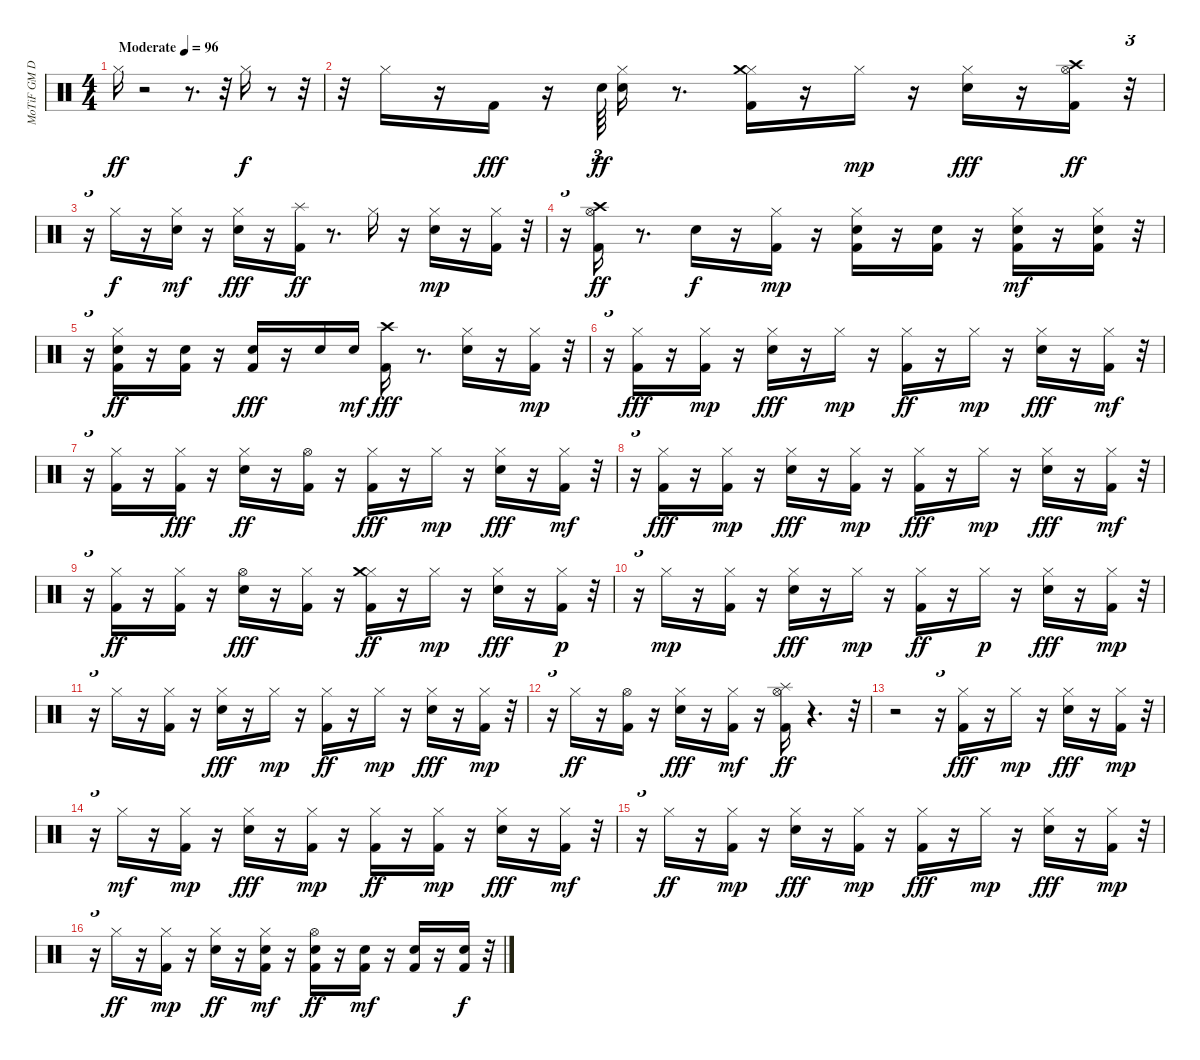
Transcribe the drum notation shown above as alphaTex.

\track ("MoTiF GM Drums" "MoTiF GM D") {instrument percussion}
\staff {score}
\articulation defaults
\ts (4 4)
\tempo (96 "Moderate")
\clef neutral
\ks c "Hi-Hat (closed)".16{dy ff}
r.2 r.8{d} r.32 "Hi-Hat (closed)".16{dy f} r.8 r.32 |
r.32 "Hi-Hat (closed)".16 r.16 "Kick (hit) 2".16{dy fff} r.16 "Snare (hit) 2".64{tu (3 2) dy ff} ("Electric Snare (hit)" "Hi-Hat (closed)").16 r.8{d} ("Kick (hit) 2" "Hi-Hat (closed)" "Crash medium (hit)").16 r.16 "Hi-Hat (closed)".16{dy mp} r.16 ("Electric Snare (hit)" "Hi-Hat (closed)").16{dy fff} r.16 ("Kick (hit) 2" "Hi-Hat (open)" "Crash high (hit)").16{dy ff} r.32{tu (3 2)} |
r.16{tu (3 2)} "Hi-Hat (closed)".16{dy f} r.16 ("Electric Snare (hit)" "Hi-Hat (closed)").16{dy mf} r.16 ("Electric Snare (hit)" "Hi-Hat (closed)").16{dy fff} r.16 ("Kick (hit) 2" "Splash (hit)").16{dy ff} r.8{d} "Hi-Hat (closed)".16 r.16 ("Electric Snare (hit)" "Hi-Hat (closed)").16{dy mp} r.16 ("Kick (hit) 2" "Hi-Hat (closed)").16 r.32{tu (3 2)} |
r.16{tu (3 2)} ("Kick (hit) 2" "Hi-Hat (open)" "Crash high (hit)").16{dy ff} r.8{d} "Electric Snare (hit)".16{dy f} r.16 ("Kick (hit) 2" "Hi-Hat (closed)").16{dy mp} r.16 ("Kick (hit) 2" "Electric Snare (hit)" "Hi-Hat (closed)").16 r.16 ("Kick (hit) 2" "Electric Snare (hit)").16 r.16 ("Kick (hit) 2" "Electric Snare (hit)" "Hi-Hat (closed)").16{dy mf} r.16 ("Kick (hit) 2" "Electric Snare (hit)" "Hi-Hat (closed)").16 r.32{tu (3 2)} |
r.16{tu (3 2)} ("Kick (hit) 2" "Electric Snare (hit)" "Hi-Hat (closed)").16{dy ff} r.16 ("Kick (hit) 2" "Electric Snare (hit)").16 r.16 ("Kick (hit) 2" "Electric Snare (hit)").16{dy fff} r.16 "Electric Snare (hit)".16 "Electric Snare (hit)".16{dy mf} ("Kick (hit) 2" "Crash high (hit)").16{dy fff} r.8{d} ("Electric Snare (hit)" "Hi-Hat (closed)").16 r.16 ("Kick (hit) 2" "Hi-Hat (closed)").16{dy mp} r.32{tu (3 2)} |
r.16{tu (3 2)} ("Kick (hit) 2" "Hi-Hat (closed)").16{dy fff} r.16 ("Kick (hit) 2" "Hi-Hat (closed)").16{dy mp} r.16 ("Electric Snare (hit)" "Hi-Hat (closed)").16{dy fff} r.16 "Hi-Hat (closed)".16{dy mp} r.16 ("Kick (hit) 2" "Hi-Hat (closed)").16{dy ff} r.16 "Hi-Hat (closed)".16{dy mp} r.16 ("Electric Snare (hit)" "Hi-Hat (closed)").16{dy fff} r.16 ("Kick (hit) 2" "Hi-Hat (closed)").16{dy mf} r.32{tu (3 2)} |
r.16{tu (3 2)} ("Kick (hit) 2" "Hi-Hat (closed)").16 r.16 ("Kick (hit) 2" "Hi-Hat (closed)").16{dy fff} r.16 ("Electric Snare (hit)" "Hi-Hat (closed)").16{dy ff} r.16 ("Kick (hit) 2" "Hi-Hat (open)").16 r.16 ("Kick (hit) 2" "Hi-Hat (closed)").16{dy fff} r.16 "Hi-Hat (closed)".16{dy mp} r.16 ("Electric Snare (hit)" "Hi-Hat (closed)").16{dy fff} r.16 ("Kick (hit) 2" "Hi-Hat (closed)").16{dy mf} r.32{tu (3 2)} |
r.16{tu (3 2)} ("Kick (hit) 2" "Hi-Hat (closed)").16{dy fff} r.16 ("Kick (hit) 2" "Hi-Hat (closed)").16{dy mp} r.16 ("Electric Snare (hit)" "Hi-Hat (closed)").16{dy fff} r.16 ("Kick (hit) 2" "Hi-Hat (closed)").16{dy mp} r.16 ("Kick (hit) 2" "Hi-Hat (closed)").16{dy fff} r.16 "Hi-Hat (closed)".16{dy mp} r.16 ("Electric Snare (hit)" "Hi-Hat (closed)").16{dy fff} r.16 ("Kick (hit) 2" "Hi-Hat (closed)").16{dy mf} r.32{tu (3 2)} |
r.16{tu (3 2)} ("Kick (hit) 2" "Hi-Hat (closed)").16{dy ff} r.16 ("Kick (hit) 2" "Hi-Hat (closed)").16 r.16 ("Electric Snare (hit)" "Hi-Hat (open)").16{dy fff} r.16 ("Kick (hit) 2" "Hi-Hat (closed)").16 r.16 ("Kick (hit) 2" "Hi-Hat (closed)" "Crash medium (hit)").16{dy ff} r.16 "Hi-Hat (closed)".16{dy mp} r.16 ("Electric Snare (hit)" "Hi-Hat (closed)").16{dy fff} r.16 ("Kick (hit) 2" "Hi-Hat (closed)").16{dy p} r.32{tu (3 2)} |
r.16{tu (3 2)} "Hi-Hat (closed)".16{dy mp} r.16 ("Kick (hit) 2" "Hi-Hat (closed)").16 r.16 ("Electric Snare (hit)" "Hi-Hat (closed)").16{dy fff} r.16 "Hi-Hat (closed)".16{dy mp} r.16 ("Kick (hit) 2" "Hi-Hat (closed)").16{dy ff} r.16 "Hi-Hat (closed)".16{dy p} r.16 ("Electric Snare (hit)" "Hi-Hat (closed)").16{dy fff} r.16 ("Kick (hit) 2" "Hi-Hat (closed)").16{dy mp} r.32{tu (3 2)} |
r.16{tu (3 2)} "Hi-Hat (closed)".16 r.16 ("Kick (hit) 2" "Hi-Hat (closed)").16 r.16 ("Electric Snare (hit)" "Hi-Hat (closed)").16{dy fff} r.16 "Hi-Hat (closed)".16{dy mp} r.16 ("Kick (hit) 2" "Hi-Hat (closed)").16{dy ff} r.16 "Hi-Hat (closed)".16{dy mp} r.16 ("Electric Snare (hit)" "Hi-Hat (closed)").16{dy fff} r.16 ("Kick (hit) 2" "Hi-Hat (closed)").16{dy mp} r.32{tu (3 2)} |
r.16{tu (3 2)} "Hi-Hat (closed)".16{dy ff} r.16 ("Kick (hit) 2" "Hi-Hat (open)").16 r.16 ("Electric Snare (hit)" "Hi-Hat (closed)").16{dy fff} r.16 ("Kick (hit) 2" "Hi-Hat (closed)").16{dy mf} r.16 ("Kick (hit) 2" "Hi-Hat (open)" "Splash (hit)").16{dy ff} r.4{d} r.32{tu (3 2)} |
r.2 r.16{tu (3 2)} ("Kick (hit) 2" "Hi-Hat (closed)").16{dy fff} r.16 "Hi-Hat (closed)".16{dy mp} r.16 ("Electric Snare (hit)" "Hi-Hat (closed)").16{dy fff} r.16 ("Kick (hit) 2" "Hi-Hat (closed)").16{dy mp} r.32{tu (3 2)} |
r.16{tu (3 2)} "Hi-Hat (closed)".16{dy mf} r.16 ("Kick (hit) 2" "Hi-Hat (closed)").16{dy mp} r.16 ("Electric Snare (hit)" "Hi-Hat (closed)").16{dy fff} r.16 ("Kick (hit) 2" "Hi-Hat (closed)").16{dy mp} r.16 ("Kick (hit) 2" "Hi-Hat (closed)").16{dy ff} r.16 ("Kick (hit) 2" "Hi-Hat (closed)").16{dy mp} r.16 ("Electric Snare (hit)" "Hi-Hat (closed)").16{dy fff} r.16 ("Kick (hit) 2" "Hi-Hat (closed)").16{dy mf} r.32{tu (3 2)} |
r.16{tu (3 2)} "Hi-Hat (closed)".16{dy ff} r.16 ("Kick (hit) 2" "Hi-Hat (closed)").16{dy mp} r.16 ("Electric Snare (hit)" "Hi-Hat (closed)").16{dy fff} r.16 ("Kick (hit) 2" "Hi-Hat (closed)").16{dy mp} r.16 ("Kick (hit) 2" "Hi-Hat (closed)").16{dy fff} r.16 "Hi-Hat (closed)".16{dy mp} r.16 ("Electric Snare (hit)" "Hi-Hat (closed)").16{dy fff} r.16 ("Kick (hit) 2" "Hi-Hat (closed)").16{dy mp} r.32{tu (3 2)} |
r.16{tu (3 2)} "Hi-Hat (closed)".16{dy ff} r.16 ("Kick (hit) 2" "Hi-Hat (closed)").16{dy mp} r.16 ("Electric Snare (hit)" "Hi-Hat (closed)").16{dy ff} r.16 ("Kick (hit) 2" "Electric Snare (hit)" "Hi-Hat (closed)").16{dy mf} r.16 ("Kick (hit) 2" "Electric Snare (hit)" "Hi-Hat (open)").16{dy ff} r.16 ("Kick (hit) 2" "Electric Snare (hit)").16{dy mf} r.16 ("Kick (hit) 2" "Electric Snare (hit)").16 r.16 ("Kick (hit) 2" "Electric Snare (hit)").16{dy f} r.32{tu (3 2)}
